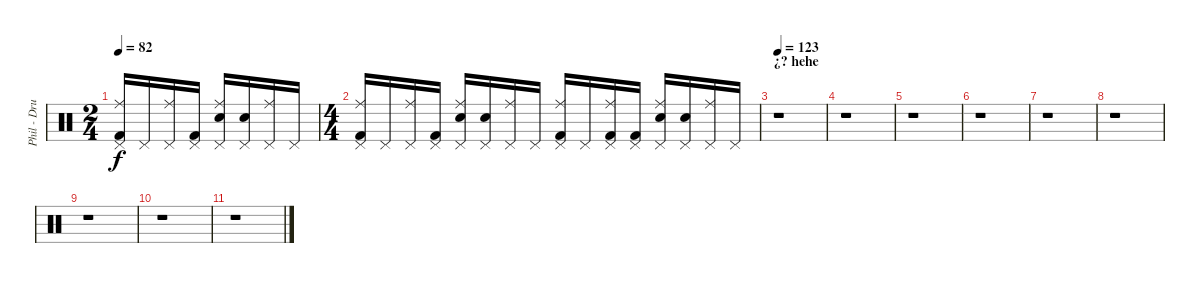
\track ("Phil - Drums" "Phil - Dru") {instrument percussion}
\staff {score}
\articulation defaults
\ts (2 4)
\tempo 82
\clef neutral
\ks c
("Ride (middle)" "Kick (hit) 2" "Pedal Hi-Hat (hit)").16{dy f volume 3} "Pedal Hi-Hat (hit)".16 ("Ride (middle)" "Pedal Hi-Hat (hit)").16 ("Kick (hit) 2" "Pedal Hi-Hat (hit)").16 ("Ride (middle)" "Electric Snare (hit)" "Pedal Hi-Hat (hit)").16 ("Electric Snare (hit)" "Pedal Hi-Hat (hit)").16 ("Ride (middle)" "Pedal Hi-Hat (hit)").16 "Pedal Hi-Hat (hit)".16 |
\ts (4 4)
("Ride (middle)" "Kick (hit) 2" "Pedal Hi-Hat (hit)").16 "Pedal Hi-Hat (hit)".16 ("Ride (middle)" "Pedal Hi-Hat (hit)").16 ("Kick (hit) 2" "Pedal Hi-Hat (hit)").16 ("Ride (middle)" "Electric Snare (hit)" "Pedal Hi-Hat (hit)").16 ("Electric Snare (hit)" "Pedal Hi-Hat (hit)").16 ("Ride (middle)" "Pedal Hi-Hat (hit)").16 "Pedal Hi-Hat (hit)".16 ("Ride (middle)" "Kick (hit) 2" "Pedal Hi-Hat (hit)").16 "Pedal Hi-Hat (hit)".16 ("Ride (middle)" "Kick (hit) 2" "Pedal Hi-Hat (hit)").16 ("Kick (hit) 2" "Pedal Hi-Hat (hit)").16 ("Ride (middle)" "Electric Snare (hit)" "Pedal Hi-Hat (hit)").16 ("Electric Snare (hit)" "Pedal Hi-Hat (hit)").16 ("Ride (middle)" "Pedal Hi-Hat (hit)").16 "Pedal Hi-Hat (hit)".16 |
\section ("" "¿? hehe")
\tempo 123
r.1 |
r.1 |
r.1 |
r.1 |
r.1 |
r.1 |
r.1 |
r.1 |
r.1
